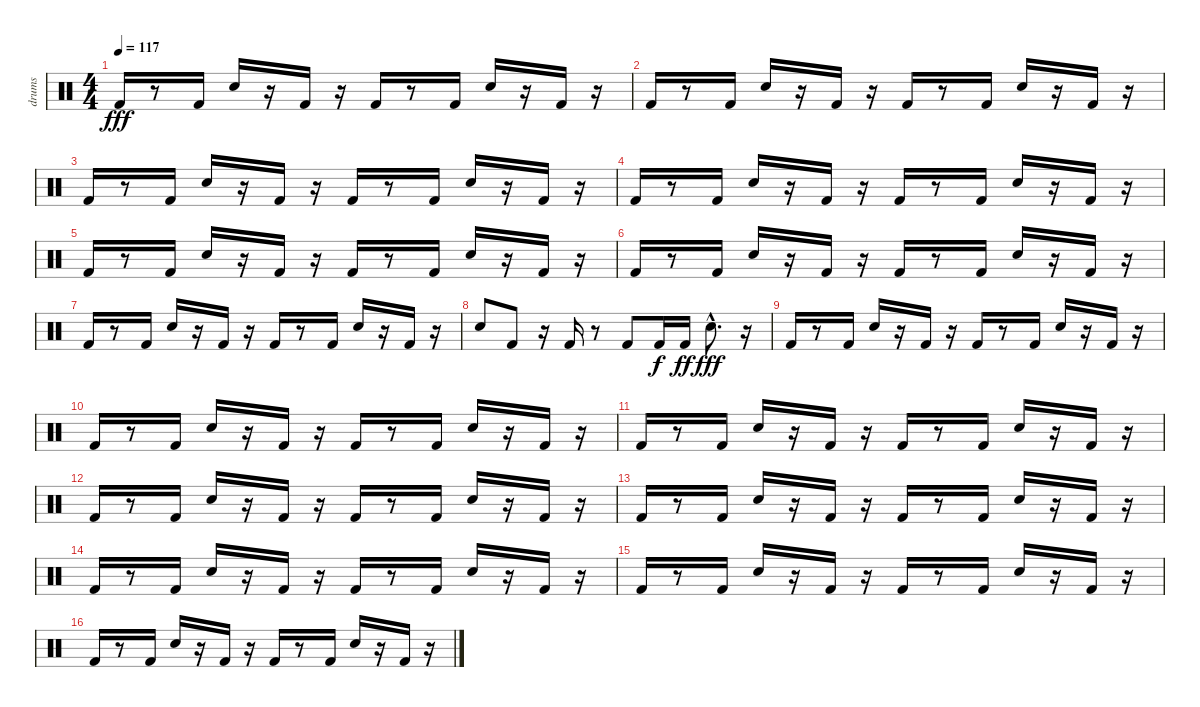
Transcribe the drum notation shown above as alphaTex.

\track ("drums" "drums") {instrument percussion}
\staff {score}
\articulation defaults
\ts (4 4)
\tempo 117
\clef neutral
\ks c "Kick (hit) 2".16{dy fff}
r.8 "Kick (hit) 2".16 "Snare (hit) 2".16 r.16 "Kick (hit) 2".16 r.16 "Kick (hit) 2".16 r.8 "Kick (hit) 2".16 "Snare (hit) 2".16 r.16 "Kick (hit) 2".16 r.16 |
"Kick (hit) 2".16 r.8 "Kick (hit) 2".16 "Snare (hit) 2".16 r.16 "Kick (hit) 2".16 r.16 "Kick (hit) 2".16 r.8 "Kick (hit) 2".16 "Snare (hit) 2".16 r.16 "Kick (hit) 2".16 r.16 |
"Kick (hit) 2".16 r.8 "Kick (hit) 2".16 "Snare (hit) 2".16 r.16 "Kick (hit) 2".16 r.16 "Kick (hit) 2".16 r.8 "Kick (hit) 2".16 "Snare (hit) 2".16 r.16 "Kick (hit) 2".16 r.16 |
"Kick (hit) 2".16 r.8 "Kick (hit) 2".16 "Snare (hit) 2".16 r.16 "Kick (hit) 2".16 r.16 "Kick (hit) 2".16 r.8 "Kick (hit) 2".16 "Snare (hit) 2".16 r.16 "Kick (hit) 2".16 r.16 |
"Kick (hit) 2".16 r.8 "Kick (hit) 2".16 "Snare (hit) 2".16 r.16 "Kick (hit) 2".16 r.16 "Kick (hit) 2".16 r.8 "Kick (hit) 2".16 "Snare (hit) 2".16 r.16 "Kick (hit) 2".16 r.16 |
"Kick (hit) 2".16 r.8 "Kick (hit) 2".16 "Snare (hit) 2".16 r.16 "Kick (hit) 2".16 r.16 "Kick (hit) 2".16 r.8 "Kick (hit) 2".16 "Snare (hit) 2".16 r.16 "Kick (hit) 2".16 r.16 |
"Kick (hit) 2".16 r.8 "Kick (hit) 2".16 "Snare (hit) 2".16 r.16 "Kick (hit) 2".16 r.16 "Kick (hit) 2".16 r.8 "Kick (hit) 2".16 "Snare (hit) 2".16 r.16 "Kick (hit) 2".16 r.16 |
"Snare (hit) 2".8 "Kick (hit) 2".8 r.16 "Kick (hit) 2".16 r.8 "Kick (hit) 2".8 "Kick (hit) 2".16{dy f} "Kick (hit) 2".16{dy ff} "Snare (hit) 2"{hac}.8{d dy fff} r.16 |
"Kick (hit) 2".16 r.8 "Kick (hit) 2".16 "Snare (hit) 2".16 r.16 "Kick (hit) 2".16 r.16 "Kick (hit) 2".16 r.8 "Kick (hit) 2".16 "Snare (hit) 2".16 r.16 "Kick (hit) 2".16 r.16 |
"Kick (hit) 2".16 r.8 "Kick (hit) 2".16 "Snare (hit) 2".16 r.16 "Kick (hit) 2".16 r.16 "Kick (hit) 2".16 r.8 "Kick (hit) 2".16 "Snare (hit) 2".16 r.16 "Kick (hit) 2".16 r.16 |
"Kick (hit) 2".16 r.8 "Kick (hit) 2".16 "Snare (hit) 2".16 r.16 "Kick (hit) 2".16 r.16 "Kick (hit) 2".16 r.8 "Kick (hit) 2".16 "Snare (hit) 2".16 r.16 "Kick (hit) 2".16 r.16 |
"Kick (hit) 2".16 r.8 "Kick (hit) 2".16 "Snare (hit) 2".16 r.16 "Kick (hit) 2".16 r.16 "Kick (hit) 2".16 r.8 "Kick (hit) 2".16 "Snare (hit) 2".16 r.16 "Kick (hit) 2".16 r.16 |
"Kick (hit) 2".16 r.8 "Kick (hit) 2".16 "Snare (hit) 2".16 r.16 "Kick (hit) 2".16 r.16 "Kick (hit) 2".16 r.8 "Kick (hit) 2".16 "Snare (hit) 2".16 r.16 "Kick (hit) 2".16 r.16 |
"Kick (hit) 2".16 r.8 "Kick (hit) 2".16 "Snare (hit) 2".16 r.16 "Kick (hit) 2".16 r.16 "Kick (hit) 2".16 r.8 "Kick (hit) 2".16 "Snare (hit) 2".16 r.16 "Kick (hit) 2".16 r.16 |
"Kick (hit) 2".16 r.8 "Kick (hit) 2".16 "Snare (hit) 2".16 r.16 "Kick (hit) 2".16 r.16 "Kick (hit) 2".16 r.8 "Kick (hit) 2".16 "Snare (hit) 2".16 r.16 "Kick (hit) 2".16 r.16 |
"Kick (hit) 2".16 r.8 "Kick (hit) 2".16 "Snare (hit) 2".16 r.16 "Kick (hit) 2".16 r.16 "Kick (hit) 2".16 r.8 "Kick (hit) 2".16 "Snare (hit) 2".16 r.16 "Kick (hit) 2".16 r.16
